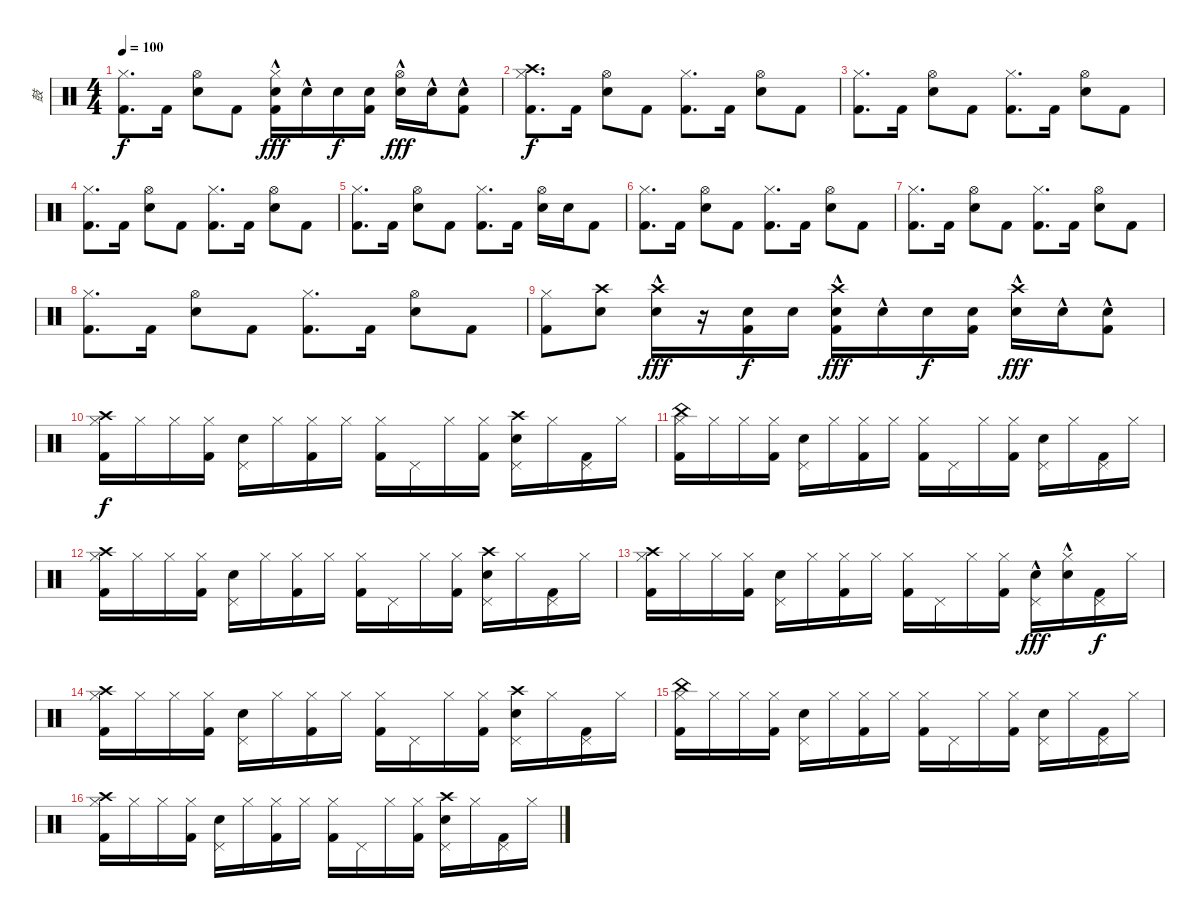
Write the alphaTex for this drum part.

\track ("鼓" "鼓") {instrument percussion}
\staff {score}
\articulation defaults
\ts (4 4)
\tempo 100
\clef neutral
\ks c
("Hi-Hat (closed)" "Kick (hit) 2").8{d dy f} "Kick (hit) 2".16 ("Hi-Hat (open)" "Electric Snare (hit)").8 "Kick (hit) 2".8 ("Hi-Hat (closed)" "Electric Snare (hit)"{hac} "Kick (hit) 2").16{dy fff} "Electric Snare (hit)"{hac}.16 "Snare (hit) 2".16{dy f} ("Electric Snare (hit)" "Kick (hit) 2").16 ("Hi-Hat (open)" "Electric Snare (hit)"{hac}).16{dy fff} "Snare (hit) 2"{hac}.16 ("Snare (hit) 2"{hac} "Kick (hit) 2").8 |
("Crash high (hit)" "Hi-Hat (closed)" "Kick (hit) 2").8{d dy f} "Kick (hit) 2".16 ("Hi-Hat (open)" "Electric Snare (hit)").8 "Kick (hit) 2".8 ("Hi-Hat (closed)" "Kick (hit) 2").8{d} "Kick (hit) 2".16 ("Hi-Hat (open)" "Electric Snare (hit)").8 "Kick (hit) 2".8 |
("Hi-Hat (closed)" "Kick (hit) 2").8{d} "Kick (hit) 2".16 ("Hi-Hat (open)" "Electric Snare (hit)").8 "Kick (hit) 2".8 ("Hi-Hat (closed)" "Kick (hit) 2").8{d} "Kick (hit) 2".16 ("Hi-Hat (open)" "Electric Snare (hit)").8 "Kick (hit) 2".8 |
("Hi-Hat (closed)" "Kick (hit) 2").8{d} "Kick (hit) 2".16 ("Hi-Hat (open)" "Electric Snare (hit)").8 "Kick (hit) 2".8 ("Hi-Hat (closed)" "Kick (hit) 2").8{d} "Kick (hit) 2".16 ("Hi-Hat (open)" "Electric Snare (hit)").8 "Kick (hit) 2".8 |
("Hi-Hat (closed)" "Kick (hit) 2").8{d} "Kick (hit) 2".16 ("Hi-Hat (open)" "Electric Snare (hit)").8 "Kick (hit) 2".8 ("Hi-Hat (closed)" "Kick (hit) 2").8{d} "Kick (hit) 2".16 ("Hi-Hat (open)" "Electric Snare (hit)").16 "Snare (hit) 2".16 "Kick (hit) 2".8 |
("Hi-Hat (closed)" "Kick (hit) 2").8{d} "Kick (hit) 2".16 ("Hi-Hat (open)" "Electric Snare (hit)").8 "Kick (hit) 2".8 ("Hi-Hat (closed)" "Kick (hit) 2").8{d} "Kick (hit) 2".16 ("Hi-Hat (open)" "Electric Snare (hit)").8 "Kick (hit) 2".8 |
("Hi-Hat (closed)" "Kick (hit) 2").8{d} "Kick (hit) 2".16 ("Hi-Hat (open)" "Electric Snare (hit)").8 "Kick (hit) 2".8 ("Hi-Hat (closed)" "Kick (hit) 2").8{d} "Kick (hit) 2".16 ("Hi-Hat (open)" "Electric Snare (hit)").8 "Kick (hit) 2".8 |
("Hi-Hat (closed)" "Kick (hit) 2").8{d} "Kick (hit) 2".16 ("Hi-Hat (open)" "Electric Snare (hit)").8 "Kick (hit) 2".8 ("Hi-Hat (closed)" "Kick (hit) 2").8{d} "Kick (hit) 2".16 ("Hi-Hat (open)" "Electric Snare (hit)").8 "Kick (hit) 2".8 |
("Hi-Hat (closed)" "Kick (hit) 2").8 ("Crash high (hit)" "Electric Snare (hit)").8 ("Crash high (hit)" "Electric Snare (hit)"{hac}).16{dy fff} r.16 ("Electric Snare (hit)" "Kick (hit) 2").16{dy f} "Electric Snare (hit)".16 ("Crash high (hit)" "Electric Snare (hit)"{hac} "Kick (hit) 2").16{dy fff} "Electric Snare (hit)"{hac}.16 "Snare (hit) 2".16{dy f} ("Electric Snare (hit)" "Kick (hit) 2").16 ("Crash high (hit)" "Electric Snare (hit)"{hac}).16{dy fff} "Snare (hit) 2"{hac}.16 ("Snare (hit) 2"{hac} "Kick (hit) 2").8 |
("Crash high (hit)" "Hi-Hat (closed)" "Kick (hit) 2").16{dy f} "Hi-Hat (closed)".16 "Hi-Hat (closed)".16 ("Hi-Hat (closed)" "Kick (hit) 2").16 ("Pedal Hi-Hat (hit)" "Electric Snare (hit)").16 "Hi-Hat (closed)".16 ("Hi-Hat (closed)" "Kick (hit) 2").16 "Hi-Hat (closed)".16 ("Hi-Hat (closed)" "Kick (hit) 2").16 "Pedal Hi-Hat (hit)".16 "Hi-Hat (closed)".16 ("Hi-Hat (closed)" "Kick (hit) 2").16 ("Crash high (hit)" "Pedal Hi-Hat (hit)" "Electric Snare (hit)").16 "Hi-Hat (closed)".16 ("Pedal Hi-Hat (hit)" "Kick (hit) 2").16 "Hi-Hat (closed)".16 |
("China (hit)" "Hi-Hat (closed)" "Kick (hit) 2").16 "Hi-Hat (closed)".16 "Hi-Hat (closed)".16 ("Hi-Hat (closed)" "Kick (hit) 2").16 ("Pedal Hi-Hat (hit)" "Electric Snare (hit)").16 "Hi-Hat (closed)".16 ("Hi-Hat (closed)" "Kick (hit) 2").16 "Hi-Hat (closed)".16 ("Hi-Hat (closed)" "Kick (hit) 2").16 "Pedal Hi-Hat (hit)".16 "Hi-Hat (closed)".16 ("Hi-Hat (closed)" "Kick (hit) 2").16 ("Pedal Hi-Hat (hit)" "Electric Snare (hit)").16 "Hi-Hat (closed)".16 ("Pedal Hi-Hat (hit)" "Kick (hit) 2").16 "Hi-Hat (closed)".16 |
("Crash high (hit)" "Hi-Hat (closed)" "Kick (hit) 2").16 "Hi-Hat (closed)".16 "Hi-Hat (closed)".16 ("Hi-Hat (closed)" "Kick (hit) 2").16 ("Pedal Hi-Hat (hit)" "Electric Snare (hit)").16 "Hi-Hat (closed)".16 ("Hi-Hat (closed)" "Kick (hit) 2").16 "Hi-Hat (closed)".16 ("Hi-Hat (closed)" "Kick (hit) 2").16 "Pedal Hi-Hat (hit)".16 "Hi-Hat (closed)".16 ("Hi-Hat (closed)" "Kick (hit) 2").16 ("Crash high (hit)" "Pedal Hi-Hat (hit)" "Electric Snare (hit)").16 "Hi-Hat (closed)".16 ("Pedal Hi-Hat (hit)" "Kick (hit) 2").16 "Hi-Hat (closed)".16 |
("Crash high (hit)" "Hi-Hat (closed)" "Kick (hit) 2").16 "Hi-Hat (closed)".16 "Hi-Hat (closed)".16 ("Hi-Hat (closed)" "Kick (hit) 2").16 ("Pedal Hi-Hat (hit)" "Electric Snare (hit)").16 "Hi-Hat (closed)".16 ("Hi-Hat (closed)" "Kick (hit) 2").16 "Hi-Hat (closed)".16 ("Hi-Hat (closed)" "Kick (hit) 2").16 "Pedal Hi-Hat (hit)".16 "Hi-Hat (closed)".16 ("Hi-Hat (closed)" "Kick (hit) 2").16 ("Pedal Hi-Hat (hit)" "Electric Snare (hit)"{hac}).16{dy fff} ("Hi-Hat (closed)" "Electric Snare (hit)"{hac}).16 ("Pedal Hi-Hat (hit)" "Kick (hit) 2").16{dy f} "Hi-Hat (closed)".16 |
("Crash high (hit)" "Hi-Hat (closed)" "Kick (hit) 2").16 "Hi-Hat (closed)".16 "Hi-Hat (closed)".16 ("Hi-Hat (closed)" "Kick (hit) 2").16 ("Pedal Hi-Hat (hit)" "Electric Snare (hit)").16 "Hi-Hat (closed)".16 ("Hi-Hat (closed)" "Kick (hit) 2").16 "Hi-Hat (closed)".16 ("Hi-Hat (closed)" "Kick (hit) 2").16 "Pedal Hi-Hat (hit)".16 "Hi-Hat (closed)".16 ("Hi-Hat (closed)" "Kick (hit) 2").16 ("Crash high (hit)" "Pedal Hi-Hat (hit)" "Electric Snare (hit)").16 "Hi-Hat (closed)".16 ("Pedal Hi-Hat (hit)" "Kick (hit) 2").16 "Hi-Hat (closed)".16 |
("China (hit)" "Hi-Hat (closed)" "Kick (hit) 2").16 "Hi-Hat (closed)".16 "Hi-Hat (closed)".16 ("Hi-Hat (closed)" "Kick (hit) 2").16 ("Pedal Hi-Hat (hit)" "Electric Snare (hit)").16 "Hi-Hat (closed)".16 ("Hi-Hat (closed)" "Kick (hit) 2").16 "Hi-Hat (closed)".16 ("Hi-Hat (closed)" "Kick (hit) 2").16 "Pedal Hi-Hat (hit)".16 "Hi-Hat (closed)".16 ("Hi-Hat (closed)" "Kick (hit) 2").16 ("Pedal Hi-Hat (hit)" "Electric Snare (hit)").16 "Hi-Hat (closed)".16 ("Pedal Hi-Hat (hit)" "Kick (hit) 2").16 "Hi-Hat (closed)".16 |
("Crash high (hit)" "Hi-Hat (closed)" "Kick (hit) 2").16 "Hi-Hat (closed)".16 "Hi-Hat (closed)".16 ("Hi-Hat (closed)" "Kick (hit) 2").16 ("Pedal Hi-Hat (hit)" "Electric Snare (hit)").16 "Hi-Hat (closed)".16 ("Hi-Hat (closed)" "Kick (hit) 2").16 "Hi-Hat (closed)".16 ("Hi-Hat (closed)" "Kick (hit) 2").16 "Pedal Hi-Hat (hit)".16 "Hi-Hat (closed)".16 ("Hi-Hat (closed)" "Kick (hit) 2").16 ("Crash high (hit)" "Pedal Hi-Hat (hit)" "Electric Snare (hit)").16 "Hi-Hat (closed)".16 ("Pedal Hi-Hat (hit)" "Kick (hit) 2").16 "Hi-Hat (closed)".16
